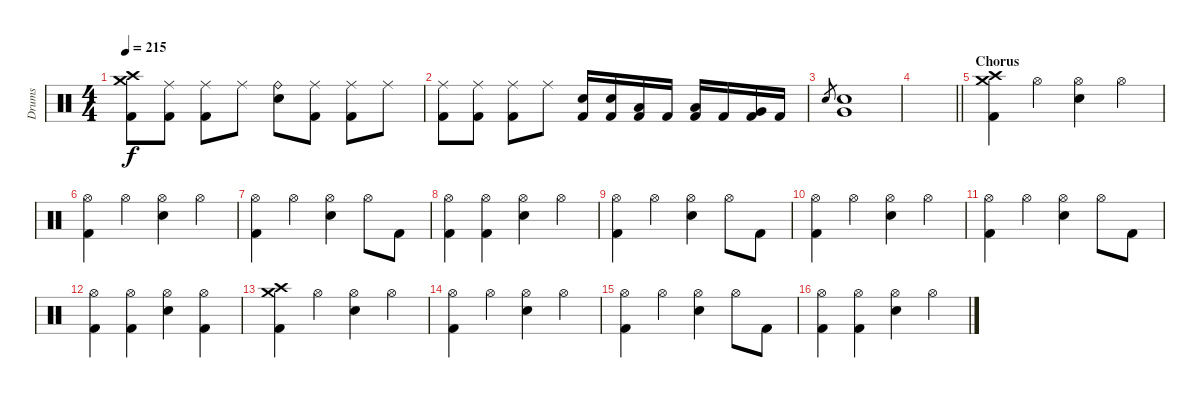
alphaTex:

\track ("Drums" "Drums") {instrument percussion}
\staff {score}
\articulation defaults
\ts (4 4)
\tempo 215
\clef neutral
\ks c
("Crash medium (hit)" "Crash high (hit)" "Kick (hit) 2").8{dy f} ("Ride (middle)" "Kick (hit) 2").8 ("Ride (middle)" "Kick (hit) 2").8 "Ride (middle)".8 ("Ride (bell)" "Electric Snare (hit)").8 ("Ride (middle)" "Kick (hit) 2").8 ("Ride (middle)" "Kick (hit) 2").8 "Ride (middle)".8 |
("Ride (middle)" "Kick (hit) 2").8 ("Ride (middle)" "Kick (hit) 2").8 ("Ride (middle)" "Kick (hit) 2").8 "Ride (middle)".8 ("Electric Snare (hit)" "Kick (hit) 2").16 ("Electric Snare (hit)" "Kick (hit) 2").16 ("Low Tom (hit)" "Kick (hit) 2").16 "Kick (hit) 2".16 ("Low Tom (hit)" "Kick (hit) 2").16 "Kick (hit) 2".16 ("Very Low Tom (hit)" "Kick (hit) 2").16 "Kick (hit) 2".16 |
"Electric Snare (hit)".8{gr} ("Very Low Tom (hit)" "Electric Snare (hit)").1 |
\barLineRight lightlight
|
\section ("" "Chorus")
("Crash medium (hit)" "Crash high (hit)" "Kick (hit) 2").4 "Hi-Hat (open)".4 ("Hi-Hat (open)" "Electric Snare (hit)").4 "Hi-Hat (open)".4 |
("Hi-Hat (open)" "Kick (hit) 2").4 "Hi-Hat (open)".4 ("Hi-Hat (open)" "Electric Snare (hit)").4 "Hi-Hat (open)".4 |
("Hi-Hat (open)" "Kick (hit) 2").4 "Hi-Hat (open)".4 ("Hi-Hat (open)" "Electric Snare (hit)").4 "Hi-Hat (open)".8 "Kick (hit) 2".8 |
("Hi-Hat (open)" "Kick (hit) 2").4 ("Hi-Hat (open)" "Kick (hit) 2").4 ("Hi-Hat (open)" "Electric Snare (hit)").4 "Hi-Hat (open)".4 |
("Hi-Hat (open)" "Kick (hit) 2").4 "Hi-Hat (open)".4 ("Hi-Hat (open)" "Electric Snare (hit)").4 "Hi-Hat (open)".8 "Kick (hit) 2".8 |
("Hi-Hat (open)" "Kick (hit) 2").4 "Hi-Hat (open)".4 ("Hi-Hat (open)" "Electric Snare (hit)").4 "Hi-Hat (open)".4 |
("Hi-Hat (open)" "Kick (hit) 2").4 "Hi-Hat (open)".4 ("Hi-Hat (open)" "Electric Snare (hit)").4 "Hi-Hat (open)".8 "Kick (hit) 2".8 |
("Hi-Hat (open)" "Kick (hit) 2").4 ("Hi-Hat (open)" "Kick (hit) 2").4 ("Hi-Hat (open)" "Electric Snare (hit)").4 ("Hi-Hat (open)" "Kick (hit) 2").4 |
("Crash medium (hit)" "Crash high (hit)" "Kick (hit) 2").4 "Hi-Hat (open)".4 ("Hi-Hat (open)" "Electric Snare (hit)").4 "Hi-Hat (open)".4 |
("Hi-Hat (open)" "Kick (hit) 2").4 "Hi-Hat (open)".4 ("Hi-Hat (open)" "Electric Snare (hit)").4 "Hi-Hat (open)".4 |
("Hi-Hat (open)" "Kick (hit) 2").4 "Hi-Hat (open)".4 ("Hi-Hat (open)" "Electric Snare (hit)").4 "Hi-Hat (open)".8 "Kick (hit) 2".8 |
("Hi-Hat (open)" "Kick (hit) 2").4 ("Hi-Hat (open)" "Kick (hit) 2").4 ("Hi-Hat (open)" "Electric Snare (hit)").4 "Hi-Hat (open)".4
